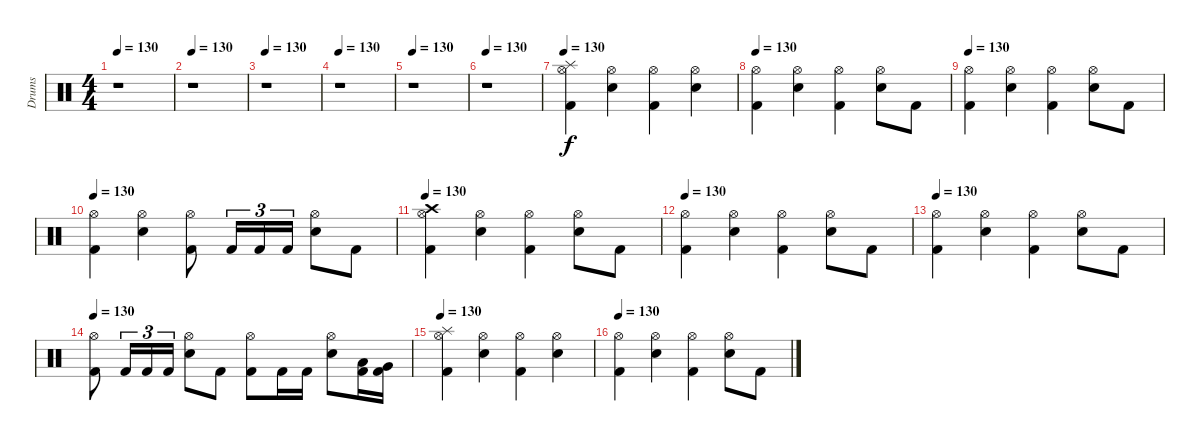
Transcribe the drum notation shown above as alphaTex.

\track ("Drums" "Drums") {instrument percussion}
\staff {score}
\articulation defaults
\ts (4 4)
\tempo 130
\clef neutral
\ks c
r.1{dy f} |
\tempo 130
r.1 |
\tempo 130
r.1 |
\tempo 130
r.1 |
\tempo 130
r.1 |
\tempo 130
r.1 |
\section ("" "")
\tempo 130
("Kick (hit) 2" "Hi-Hat (open)" "Splash (hit)").4 ("Snare (hit) 2" "Hi-Hat (open)").4 ("Kick (hit) 2" "Hi-Hat (open)").4 ("Snare (hit) 2" "Hi-Hat (open)").4 |
\tempo 130
("Kick (hit) 2" "Hi-Hat (open)").4 ("Snare (hit) 2" "Hi-Hat (open)").4 ("Kick (hit) 2" "Hi-Hat (open)").4 ("Snare (hit) 2" "Hi-Hat (open)").8 "Kick (hit) 2".8 |
\tempo 130
("Kick (hit) 2" "Hi-Hat (open)").4 ("Snare (hit) 2" "Hi-Hat (open)").4 ("Kick (hit) 2" "Hi-Hat (open)").4 ("Snare (hit) 2" "Hi-Hat (open)").8 "Kick (hit) 2".8 |
\tempo 130
("Kick (hit) 2" "Hi-Hat (open)").4 ("Snare (hit) 2" "Hi-Hat (open)").4 ("Kick (hit) 2" "Hi-Hat (open)").8 "Kick (hit) 2".16{tu (3 2)} "Kick (hit) 2".16{tu (3 2)} "Kick (hit) 2".16{tu (3 2)} ("Snare (hit) 2" "Hi-Hat (open)").8 "Kick (hit) 2".8 |
\tempo 130
("Kick (hit) 2" "Hi-Hat (open)" "Crash high (hit)").4 ("Snare (hit) 2" "Hi-Hat (open)").4 ("Kick (hit) 2" "Hi-Hat (open)").4 ("Snare (hit) 2" "Hi-Hat (open)").8 "Kick (hit) 2".8 |
\tempo 130
("Kick (hit) 2" "Hi-Hat (open)").4 ("Snare (hit) 2" "Hi-Hat (open)").4 ("Kick (hit) 2" "Hi-Hat (open)").4 ("Snare (hit) 2" "Hi-Hat (open)").8 "Kick (hit) 2".8 |
\tempo 130
("Kick (hit) 2" "Hi-Hat (open)").4 ("Snare (hit) 2" "Hi-Hat (open)").4 ("Kick (hit) 2" "Hi-Hat (open)").4 ("Snare (hit) 2" "Hi-Hat (open)").8 "Kick (hit) 2".8 |
\tempo 130
("Kick (hit) 2" "Hi-Hat (open)").8 "Kick (hit) 2".16{tu (3 2)} "Kick (hit) 2".16{tu (3 2)} "Kick (hit) 2".16{tu (3 2)} ("Snare (hit) 2" "Hi-Hat (open)").8 "Kick (hit) 2".8 ("Kick (hit) 2" "Hi-Hat (open)").8 "Kick (hit) 2".16 "Kick (hit) 2".16 ("Snare (hit) 2" "Hi-Hat (open)").8 ("Kick (hit) 2" "Low Tom (hit)").16 ("Kick (hit) 2" "Very Low Tom (hit)").16 |
\section ("" "")
\tempo 130
("Kick (hit) 2" "Hi-Hat (open)" "Splash (hit)").4 ("Snare (hit) 2" "Hi-Hat (open)").4 ("Kick (hit) 2" "Hi-Hat (open)").4 ("Snare (hit) 2" "Hi-Hat (open)").4 |
\tempo 130
("Kick (hit) 2" "Hi-Hat (open)").4 ("Snare (hit) 2" "Hi-Hat (open)").4 ("Kick (hit) 2" "Hi-Hat (open)").4 ("Snare (hit) 2" "Hi-Hat (open)").8 "Kick (hit) 2".8
